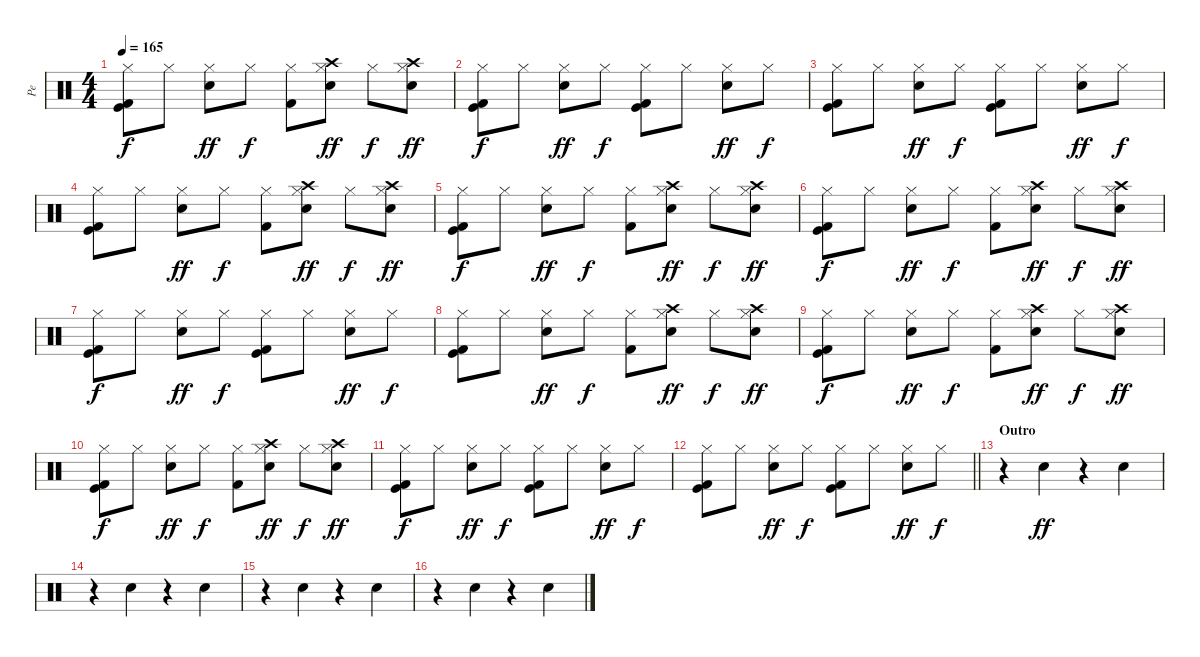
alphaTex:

\track ("Pe" "Pe") {instrument percussion}
\staff {score}
\articulation defaults
\ts (4 4)
\tempo 165
\clef neutral
\ks c
("Kick (hit)" "Hi-Hat (closed)" "Kick (hit) 2").8{dy f} "Hi-Hat (closed)".8 ("Electric Snare (hit)" "Hi-Hat (closed)").8{dy ff} "Hi-Hat (closed)".8{dy f} ("Hi-Hat (closed)" "Kick (hit) 2").8 ("Crash high (hit)" "Electric Snare (hit)" "Hi-Hat (closed)").8{dy ff} "Hi-Hat (closed)".8{dy f} ("Crash high (hit)" "Electric Snare (hit)" "Hi-Hat (closed)").8{dy ff} |
("Kick (hit)" "Hi-Hat (closed)" "Kick (hit) 2").8{dy f} "Hi-Hat (closed)".8 ("Electric Snare (hit)" "Hi-Hat (closed)").8{dy ff} "Hi-Hat (closed)".8{dy f} ("Kick (hit)" "Hi-Hat (closed)" "Kick (hit) 2").8 "Hi-Hat (closed)".8 ("Electric Snare (hit)" "Hi-Hat (closed)").8{dy ff} "Hi-Hat (closed)".8{dy f} |
("Kick (hit)" "Hi-Hat (closed)" "Kick (hit) 2").8 "Hi-Hat (closed)".8 ("Electric Snare (hit)" "Hi-Hat (closed)").8{dy ff} "Hi-Hat (closed)".8{dy f} ("Kick (hit)" "Hi-Hat (closed)" "Kick (hit) 2").8 "Hi-Hat (closed)".8 ("Electric Snare (hit)" "Hi-Hat (closed)").8{dy ff} "Hi-Hat (closed)".8{dy f} |
("Kick (hit)" "Hi-Hat (closed)" "Kick (hit) 2").8 "Hi-Hat (closed)".8 ("Electric Snare (hit)" "Hi-Hat (closed)").8{dy ff} "Hi-Hat (closed)".8{dy f} ("Hi-Hat (closed)" "Kick (hit) 2").8 ("Crash high (hit)" "Electric Snare (hit)" "Hi-Hat (closed)").8{dy ff} "Hi-Hat (closed)".8{dy f} ("Crash high (hit)" "Electric Snare (hit)" "Hi-Hat (closed)").8{dy ff} |
("Kick (hit)" "Hi-Hat (closed)" "Kick (hit) 2").8{dy f} "Hi-Hat (closed)".8 ("Electric Snare (hit)" "Hi-Hat (closed)").8{dy ff} "Hi-Hat (closed)".8{dy f} ("Hi-Hat (closed)" "Kick (hit) 2").8 ("Crash high (hit)" "Electric Snare (hit)" "Hi-Hat (closed)").8{dy ff} "Hi-Hat (closed)".8{dy f} ("Crash high (hit)" "Electric Snare (hit)" "Hi-Hat (closed)").8{dy ff} |
("Kick (hit)" "Hi-Hat (closed)" "Kick (hit) 2").8{dy f} "Hi-Hat (closed)".8 ("Electric Snare (hit)" "Hi-Hat (closed)").8{dy ff} "Hi-Hat (closed)".8{dy f} ("Hi-Hat (closed)" "Kick (hit) 2").8 ("Crash high (hit)" "Electric Snare (hit)" "Hi-Hat (closed)").8{dy ff} "Hi-Hat (closed)".8{dy f} ("Crash high (hit)" "Electric Snare (hit)" "Hi-Hat (closed)").8{dy ff} |
("Kick (hit)" "Hi-Hat (closed)" "Kick (hit) 2").8{dy f} "Hi-Hat (closed)".8 ("Electric Snare (hit)" "Hi-Hat (closed)").8{dy ff} "Hi-Hat (closed)".8{dy f} ("Kick (hit)" "Hi-Hat (closed)" "Kick (hit) 2").8 "Hi-Hat (closed)".8 ("Electric Snare (hit)" "Hi-Hat (closed)").8{dy ff} "Hi-Hat (closed)".8{dy f} |
("Kick (hit)" "Hi-Hat (closed)" "Kick (hit) 2").8 "Hi-Hat (closed)".8 ("Electric Snare (hit)" "Hi-Hat (closed)").8{dy ff} "Hi-Hat (closed)".8{dy f} ("Hi-Hat (closed)" "Kick (hit) 2").8 ("Crash high (hit)" "Electric Snare (hit)" "Hi-Hat (closed)").8{dy ff} "Hi-Hat (closed)".8{dy f} ("Crash high (hit)" "Electric Snare (hit)" "Hi-Hat (closed)").8{dy ff} |
("Kick (hit)" "Hi-Hat (closed)" "Kick (hit) 2").8{dy f} "Hi-Hat (closed)".8 ("Electric Snare (hit)" "Hi-Hat (closed)").8{dy ff} "Hi-Hat (closed)".8{dy f} ("Hi-Hat (closed)" "Kick (hit) 2").8 ("Crash high (hit)" "Electric Snare (hit)" "Hi-Hat (closed)").8{dy ff} "Hi-Hat (closed)".8{dy f} ("Crash high (hit)" "Electric Snare (hit)" "Hi-Hat (closed)").8{dy ff} |
("Kick (hit)" "Hi-Hat (closed)" "Kick (hit) 2").8{dy f} "Hi-Hat (closed)".8 ("Electric Snare (hit)" "Hi-Hat (closed)").8{dy ff} "Hi-Hat (closed)".8{dy f} ("Hi-Hat (closed)" "Kick (hit) 2").8 ("Crash high (hit)" "Electric Snare (hit)" "Hi-Hat (closed)").8{dy ff} "Hi-Hat (closed)".8{dy f} ("Crash high (hit)" "Electric Snare (hit)" "Hi-Hat (closed)").8{dy ff} |
("Kick (hit)" "Hi-Hat (closed)" "Kick (hit) 2").8{dy f} "Hi-Hat (closed)".8 ("Electric Snare (hit)" "Hi-Hat (closed)").8{dy ff} "Hi-Hat (closed)".8{dy f} ("Kick (hit)" "Hi-Hat (closed)" "Kick (hit) 2").8 "Hi-Hat (closed)".8 ("Electric Snare (hit)" "Hi-Hat (closed)").8{dy ff} "Hi-Hat (closed)".8{dy f} |
\barLineRight lightlight
("Kick (hit)" "Hi-Hat (closed)" "Kick (hit) 2").8 "Hi-Hat (closed)".8 ("Electric Snare (hit)" "Hi-Hat (closed)").8{dy ff} "Hi-Hat (closed)".8{dy f} ("Kick (hit)" "Hi-Hat (closed)" "Kick (hit) 2").8 "Hi-Hat (closed)".8 ("Electric Snare (hit)" "Hi-Hat (closed)").8{dy ff} "Hi-Hat (closed)".8{dy f} |
\section ("" "Outro")
r.4 "Electric Snare (hit)".4{dy ff} r.4 "Electric Snare (hit)".4 |
r.4 "Electric Snare (hit)".4 r.4 "Electric Snare (hit)".4 |
r.4 "Electric Snare (hit)".4 r.4 "Electric Snare (hit)".4 |
r.4 "Electric Snare (hit)".4 r.4 "Electric Snare (hit)".4
